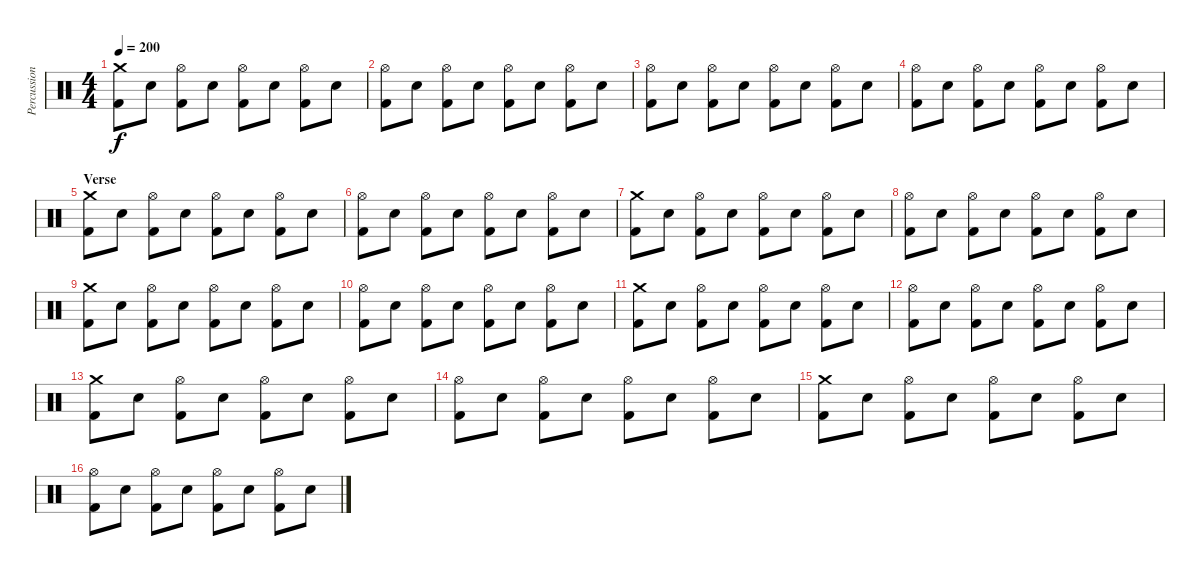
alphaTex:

\track ("Percussion" "Percussion") {instrument percussion}
\staff {score}
\articulation defaults
\ts (4 4)
\section ("" "")
\tempo 200
\clef neutral
\ks c
("Crash medium (hit)" "Kick (hit) 2").8{dy f} "Snare (hit) 2".8 ("Hi-Hat (open)" "Kick (hit) 2").8 "Snare (hit) 2".8 ("Hi-Hat (open)" "Kick (hit) 2").8 "Snare (hit) 2".8 ("Hi-Hat (open)" "Kick (hit) 2").8 "Snare (hit) 2".8 |
("Hi-Hat (open)" "Kick (hit) 2").8 "Snare (hit) 2".8 ("Hi-Hat (open)" "Kick (hit) 2").8 "Snare (hit) 2".8 ("Hi-Hat (open)" "Kick (hit) 2").8 "Snare (hit) 2".8 ("Hi-Hat (open)" "Kick (hit) 2").8 "Snare (hit) 2".8 |
("Hi-Hat (open)" "Kick (hit) 2").8 "Snare (hit) 2".8 ("Hi-Hat (open)" "Kick (hit) 2").8 "Snare (hit) 2".8 ("Hi-Hat (open)" "Kick (hit) 2").8 "Snare (hit) 2".8 ("Hi-Hat (open)" "Kick (hit) 2").8 "Snare (hit) 2".8 |
("Hi-Hat (open)" "Kick (hit) 2").8 "Snare (hit) 2".8 ("Hi-Hat (open)" "Kick (hit) 2").8 "Snare (hit) 2".8 ("Hi-Hat (open)" "Kick (hit) 2").8 "Snare (hit) 2".8 ("Hi-Hat (open)" "Kick (hit) 2").8 "Snare (hit) 2".8 |
\section ("" "Verse")
("Crash medium (hit)" "Kick (hit) 2").8 "Snare (hit) 2".8 ("Hi-Hat (open)" "Kick (hit) 2").8 "Snare (hit) 2".8 ("Hi-Hat (open)" "Kick (hit) 2").8 "Snare (hit) 2".8 ("Hi-Hat (open)" "Kick (hit) 2").8 "Snare (hit) 2".8 |
("Hi-Hat (open)" "Kick (hit) 2").8 "Snare (hit) 2".8 ("Hi-Hat (open)" "Kick (hit) 2").8 "Snare (hit) 2".8 ("Hi-Hat (open)" "Kick (hit) 2").8 "Snare (hit) 2".8 ("Hi-Hat (open)" "Kick (hit) 2").8 "Snare (hit) 2".8 |
("Crash medium (hit)" "Kick (hit) 2").8 "Snare (hit) 2".8 ("Hi-Hat (open)" "Kick (hit) 2").8 "Snare (hit) 2".8 ("Hi-Hat (open)" "Kick (hit) 2").8 "Snare (hit) 2".8 ("Hi-Hat (open)" "Kick (hit) 2").8 "Snare (hit) 2".8 |
("Hi-Hat (open)" "Kick (hit) 2").8 "Snare (hit) 2".8 ("Hi-Hat (open)" "Kick (hit) 2").8 "Snare (hit) 2".8 ("Hi-Hat (open)" "Kick (hit) 2").8 "Snare (hit) 2".8 ("Hi-Hat (open)" "Kick (hit) 2").8 "Snare (hit) 2".8 |
("Crash medium (hit)" "Kick (hit) 2").8 "Snare (hit) 2".8 ("Hi-Hat (open)" "Kick (hit) 2").8 "Snare (hit) 2".8 ("Hi-Hat (open)" "Kick (hit) 2").8 "Snare (hit) 2".8 ("Hi-Hat (open)" "Kick (hit) 2").8 "Snare (hit) 2".8 |
("Hi-Hat (open)" "Kick (hit) 2").8 "Snare (hit) 2".8 ("Hi-Hat (open)" "Kick (hit) 2").8 "Snare (hit) 2".8 ("Hi-Hat (open)" "Kick (hit) 2").8 "Snare (hit) 2".8 ("Hi-Hat (open)" "Kick (hit) 2").8 "Snare (hit) 2".8 |
("Crash medium (hit)" "Kick (hit) 2").8 "Snare (hit) 2".8 ("Hi-Hat (open)" "Kick (hit) 2").8 "Snare (hit) 2".8 ("Hi-Hat (open)" "Kick (hit) 2").8 "Snare (hit) 2".8 ("Hi-Hat (open)" "Kick (hit) 2").8 "Snare (hit) 2".8 |
("Hi-Hat (open)" "Kick (hit) 2").8 "Snare (hit) 2".8 ("Hi-Hat (open)" "Kick (hit) 2").8 "Snare (hit) 2".8 ("Hi-Hat (open)" "Kick (hit) 2").8 "Snare (hit) 2".8 ("Hi-Hat (open)" "Kick (hit) 2").8 "Snare (hit) 2".8 |
("Crash medium (hit)" "Kick (hit) 2").8 "Snare (hit) 2".8 ("Hi-Hat (open)" "Kick (hit) 2").8 "Snare (hit) 2".8 ("Hi-Hat (open)" "Kick (hit) 2").8 "Snare (hit) 2".8 ("Hi-Hat (open)" "Kick (hit) 2").8 "Snare (hit) 2".8 |
("Hi-Hat (open)" "Kick (hit) 2").8 "Snare (hit) 2".8 ("Hi-Hat (open)" "Kick (hit) 2").8 "Snare (hit) 2".8 ("Hi-Hat (open)" "Kick (hit) 2").8 "Snare (hit) 2".8 ("Hi-Hat (open)" "Kick (hit) 2").8 "Snare (hit) 2".8 |
("Crash medium (hit)" "Kick (hit) 2").8 "Snare (hit) 2".8 ("Hi-Hat (open)" "Kick (hit) 2").8 "Snare (hit) 2".8 ("Hi-Hat (open)" "Kick (hit) 2").8 "Snare (hit) 2".8 ("Hi-Hat (open)" "Kick (hit) 2").8 "Snare (hit) 2".8 |
("Hi-Hat (open)" "Kick (hit) 2").8 "Snare (hit) 2".8 ("Hi-Hat (open)" "Kick (hit) 2").8 "Snare (hit) 2".8 ("Hi-Hat (open)" "Kick (hit) 2").8 "Snare (hit) 2".8 ("Hi-Hat (open)" "Kick (hit) 2").8 "Snare (hit) 2".8
